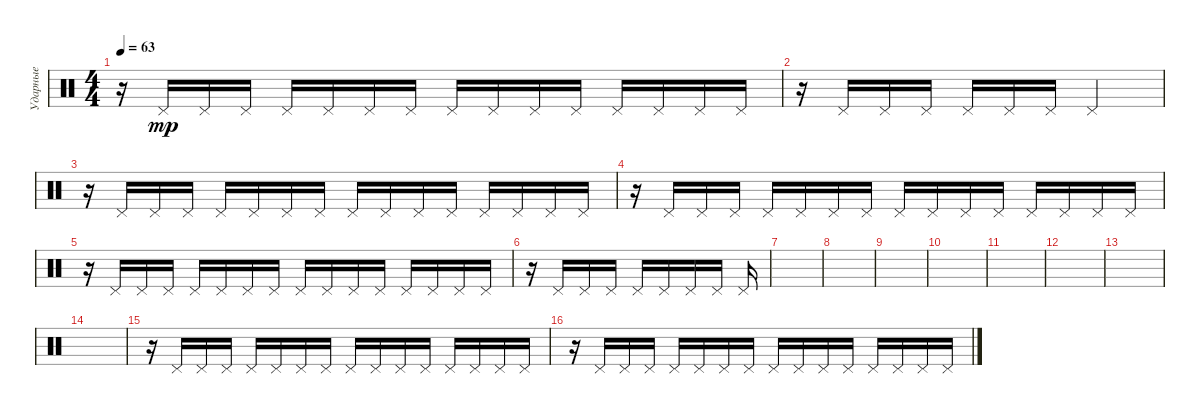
\track ("Ударные" "Ударные") {instrument percussion}
\staff {score}
\articulation defaults
\ts (4 4)
\tempo 63
\clef neutral
\ks c
r.16{dy mp} "Pedal Hi-Hat (hit)".16 "Pedal Hi-Hat (hit)".16 "Pedal Hi-Hat (hit)".16 "Pedal Hi-Hat (hit)".16 "Pedal Hi-Hat (hit)".16 "Pedal Hi-Hat (hit)".16 "Pedal Hi-Hat (hit)".16 "Pedal Hi-Hat (hit)".16 "Pedal Hi-Hat (hit)".16 "Pedal Hi-Hat (hit)".16 "Pedal Hi-Hat (hit)".16 "Pedal Hi-Hat (hit)".16 "Pedal Hi-Hat (hit)".16 "Pedal Hi-Hat (hit)".16 "Pedal Hi-Hat (hit)".16 |
r.16 "Pedal Hi-Hat (hit)".16 "Pedal Hi-Hat (hit)".16 "Pedal Hi-Hat (hit)".16 "Pedal Hi-Hat (hit)".16 "Pedal Hi-Hat (hit)".16 "Pedal Hi-Hat (hit)".16 "Pedal Hi-Hat (hit)".2 |
r.16 "Pedal Hi-Hat (hit)".16 "Pedal Hi-Hat (hit)".16 "Pedal Hi-Hat (hit)".16 "Pedal Hi-Hat (hit)".16 "Pedal Hi-Hat (hit)".16 "Pedal Hi-Hat (hit)".16 "Pedal Hi-Hat (hit)".16 "Pedal Hi-Hat (hit)".16 "Pedal Hi-Hat (hit)".16 "Pedal Hi-Hat (hit)".16 "Pedal Hi-Hat (hit)".16 "Pedal Hi-Hat (hit)".16 "Pedal Hi-Hat (hit)".16 "Pedal Hi-Hat (hit)".16 "Pedal Hi-Hat (hit)".16 |
r.16 "Pedal Hi-Hat (hit)".16 "Pedal Hi-Hat (hit)".16 "Pedal Hi-Hat (hit)".16 "Pedal Hi-Hat (hit)".16 "Pedal Hi-Hat (hit)".16 "Pedal Hi-Hat (hit)".16 "Pedal Hi-Hat (hit)".16 "Pedal Hi-Hat (hit)".16 "Pedal Hi-Hat (hit)".16 "Pedal Hi-Hat (hit)".16 "Pedal Hi-Hat (hit)".16 "Pedal Hi-Hat (hit)".16 "Pedal Hi-Hat (hit)".16 "Pedal Hi-Hat (hit)".16 "Pedal Hi-Hat (hit)".16 |
r.16 "Pedal Hi-Hat (hit)".16 "Pedal Hi-Hat (hit)".16 "Pedal Hi-Hat (hit)".16 "Pedal Hi-Hat (hit)".16 "Pedal Hi-Hat (hit)".16 "Pedal Hi-Hat (hit)".16 "Pedal Hi-Hat (hit)".16 "Pedal Hi-Hat (hit)".16 "Pedal Hi-Hat (hit)".16 "Pedal Hi-Hat (hit)".16 "Pedal Hi-Hat (hit)".16 "Pedal Hi-Hat (hit)".16 "Pedal Hi-Hat (hit)".16 "Pedal Hi-Hat (hit)".16 "Pedal Hi-Hat (hit)".16 |
r.16 "Pedal Hi-Hat (hit)".16 "Pedal Hi-Hat (hit)".16 "Pedal Hi-Hat (hit)".16 "Pedal Hi-Hat (hit)".16 "Pedal Hi-Hat (hit)".16 "Pedal Hi-Hat (hit)".16 "Pedal Hi-Hat (hit)".16 "Pedal Hi-Hat (hit)".16 |
|
|
|
|
|
|
|
|
r.16 "Pedal Hi-Hat (hit)".16 "Pedal Hi-Hat (hit)".16 "Pedal Hi-Hat (hit)".16 "Pedal Hi-Hat (hit)".16 "Pedal Hi-Hat (hit)".16 "Pedal Hi-Hat (hit)".16 "Pedal Hi-Hat (hit)".16 "Pedal Hi-Hat (hit)".16 "Pedal Hi-Hat (hit)".16 "Pedal Hi-Hat (hit)".16 "Pedal Hi-Hat (hit)".16 "Pedal Hi-Hat (hit)".16 "Pedal Hi-Hat (hit)".16 "Pedal Hi-Hat (hit)".16 "Pedal Hi-Hat (hit)".16 |
r.16 "Pedal Hi-Hat (hit)".16 "Pedal Hi-Hat (hit)".16 "Pedal Hi-Hat (hit)".16 "Pedal Hi-Hat (hit)".16 "Pedal Hi-Hat (hit)".16 "Pedal Hi-Hat (hit)".16 "Pedal Hi-Hat (hit)".16 "Pedal Hi-Hat (hit)".16 "Pedal Hi-Hat (hit)".16 "Pedal Hi-Hat (hit)".16 "Pedal Hi-Hat (hit)".16 "Pedal Hi-Hat (hit)".16 "Pedal Hi-Hat (hit)".16 "Pedal Hi-Hat (hit)".16 "Pedal Hi-Hat (hit)".16
